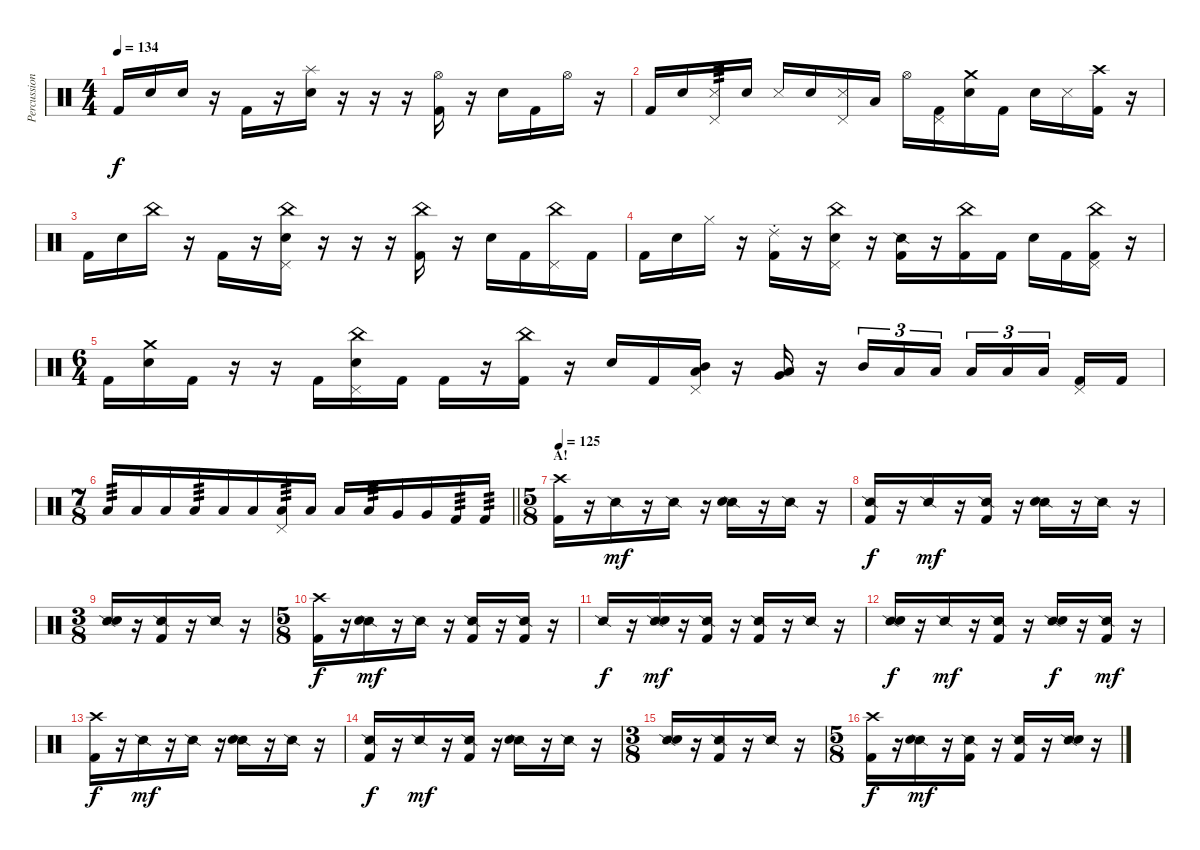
\track ("Percussion" "Percussion") {instrument percussion}
\staff {score}
\articulation defaults
\ts (4 4)
\tempo 134
\clef neutral
\ks c "Kick (hit) 2".16{dy f} "Snare (hit) 2".16 "Snare (hit)".16
r.16 "Kick (hit) 2".16 r.16 ("Splash (hit)" "Snare (hit) 2").16 r.16 r.16 r.16 ("Hi-Hat (open)" "Kick (hit) 2").16 r.16 "Snare (hit) 2".16 "Kick (hit) 2".16 "Hi-Hat (open)".16 r.16 |
"Kick (hit) 2".16 "Snare (hit) 2".16 ("Pedal Hi-Hat (hit)" "Metronome (hit)").16{tp 3} "Snare (hit) 2".16 "Metronome (hit)".16 "Snare (hit) 2".16 ("Pedal Hi-Hat (hit)" "Metronome (hit)").16 "Low Tom (hit)".16 "Hi-Hat (open)".16 ("Pedal Hi-Hat (hit)" "Kick (hit) 2").16 ("Crash medium (hit)" "Snare (hit) 2").16 "Kick (hit) 2".16 "Snare (hit) 2".16 "Metronome (hit)".16 ("Crash high (hit)" "Kick (hit) 2").16 r.16 |
"Kick (hit) 2".16 "Snare (hit) 2".16 "China (hit)".16 r.16 "Kick (hit) 2".16 r.16 ("China (hit)" "Pedal Hi-Hat (hit)" "Snare (hit) 2").16 r.16 r.16 r.16 ("China (hit)" "Kick (hit) 2").16 r.16 "Snare (hit) 2".16 "Kick (hit) 2".16 ("China (hit)" "Pedal Hi-Hat (hit)").16 "Kick (hit) 2".16 |
"Kick (hit) 2".16 "Snare (hit) 2".16 "Hi-Hat (closed)".16 r.16 ("Ride (choke) 2" "Kick (hit) 2").16 r.16 ("China (hit)" "Pedal Hi-Hat (hit)" "Snare (hit) 2").16 r.16 ("Snare (side stick) 2" "Kick (hit) 2").16 r.16 ("China (hit)" "Kick (hit) 2").16 "Kick (hit) 2".16 "Snare (hit) 2".16 "Kick (hit) 2".16 ("China (hit)" "Pedal Hi-Hat (hit)" "Kick (hit) 2").16 r.16 |
\ts (6 4)
"Kick (hit) 2".16 ("Crash medium (hit)" "Snare (hit) 2").16 "Kick (hit) 2".16 r.16 r.16 "Kick (hit) 2".16 ("China (hit)" "Pedal Hi-Hat (hit)" "Snare (hit) 2").16 "Kick (hit) 2".16 "Kick (hit) 2".16 r.16 ("China (hit)" "Kick (hit) 2").16 r.16 "Snare (hit) 2".16 "Kick (hit) 2".16 ("Pedal Hi-Hat (hit)" "Mid Tom (hit)" "Low Tom (hit)").16 r.16 ("Low Tom (hit)" "Very Low Tom (hit)").16 r.16 "Mid Tom (hit)".16{tu (3 2)} "Low Tom (hit)".16{tu (3 2)} "Low Floor Tom (hit)".16{tu (3 2) beam splitsecondary} "Low Floor Tom (hit)".16{tu (3 2)} "Low Floor Tom (hit)".16{tu (3 2)} "Low Floor Tom (hit)".16{tu (3 2) beam splitsecondary} ("Pedal Hi-Hat (hit)" "Kick (hit) 2").16 "Kick (hit) 2".16 |
\ts (7 8)
\barLineRight lightlight "Low Tom (hit)".16{tp 3} "Low Tom (hit)".16 "Low Tom (hit)".16 "Low Tom (hit)".16{tp 3} "Low Tom (hit)".16 "Low Tom (hit)".16
("Pedal Hi-Hat (hit)" "Low Tom (hit)").16{tp 3} "Low Tom (hit)".16 "Low Tom (hit)".16 "Low Tom (hit)".16{tp 3} "Very Low Tom (hit)".16 "Very Low Tom (hit)".16 "Kick (hit) 2".16{tp 3} "Kick (hit) 2".16{tp 3} |
\ts (5 8)
\section ("" "A!")
\tempo 125
("Crash high (hit)" "Kick (hit) 2").16 r.16 "Snare (side stick) 2".16{dy mf} r.16 "Snare (side stick) 2".16 r.16 ("Snare (side stick) 2" "Snare (hit) 2").16 r.16 "Snare (side stick) 2".16 r.16 |
("Snare (side stick) 2" "Kick (hit) 2").16{dy f} r.16 "Snare (side stick) 2".16{dy mf} r.16 ("Snare (side stick) 2" "Kick (hit) 2").16 r.16 ("Snare (side stick) 2" "Snare (hit) 2").16 r.16 "Snare (side stick) 2".16 r.16 |
\ts (3 8)
("Snare (side stick) 2" "Snare (hit) 2").16 r.16 ("Snare (side stick) 2" "Kick (hit) 2").16 r.16 "Snare (side stick) 2".16 r.16 |
\ts (5 8)
("Crash high (hit)" "Kick (hit) 2").16{dy f} r.16 ("Snare (side stick) 2" "Snare (hit) 2").16{dy mf} r.16 "Snare (side stick) 2".16 r.16 ("Snare (side stick) 2" "Kick (hit) 2").16 r.16 ("Snare (side stick) 2" "Kick (hit) 2").16 r.16 |
"Snare (side stick) 2".16{dy f} r.16 ("Snare (side stick) 2" "Snare (hit) 2").16{dy mf} r.16 ("Snare (side stick) 2" "Kick (hit) 2").16 r.16 ("Snare (side stick) 2" "Kick (hit) 2").16 r.16 "Snare (side stick) 2".16 r.16 |
("Snare (side stick) 2" "Snare (hit) 2").16{dy f} r.16 "Snare (side stick) 2".16{dy mf} r.16 ("Snare (side stick) 2" "Kick (hit) 2").16 r.16 ("Snare (side stick) 2" "Snare (hit) 2").16{dy f} r.16 ("Snare (side stick) 2" "Kick (hit) 2").16{dy mf} r.16 |
("Crash high (hit)" "Kick (hit) 2").16{dy f} r.16 "Snare (side stick) 2".16{dy mf} r.16 "Snare (side stick) 2".16 r.16 ("Snare (side stick) 2" "Snare (hit) 2").16 r.16 "Snare (side stick) 2".16 r.16 |
("Snare (side stick) 2" "Kick (hit) 2").16{dy f} r.16 "Snare (side stick) 2".16{dy mf} r.16 ("Snare (side stick) 2" "Kick (hit) 2").16 r.16 ("Snare (side stick) 2" "Snare (hit) 2").16 r.16 "Snare (side stick) 2".16 r.16 |
\ts (3 8)
("Snare (side stick) 2" "Snare (hit) 2").16 r.16 ("Snare (side stick) 2" "Kick (hit) 2").16 r.16 "Snare (side stick) 2".16 r.16 |
\ts (5 8)
("Crash high (hit)" "Kick (hit) 2").16{dy f} r.16 ("Snare (side stick) 2" "Snare (hit) 2").16{dy mf} r.16 ("Snare (side stick) 2" "Kick (hit) 2").16 r.16 ("Snare (side stick) 2" "Kick (hit) 2").16 r.16 ("Snare (side stick) 2" "Snare (hit) 2").16 r.16
